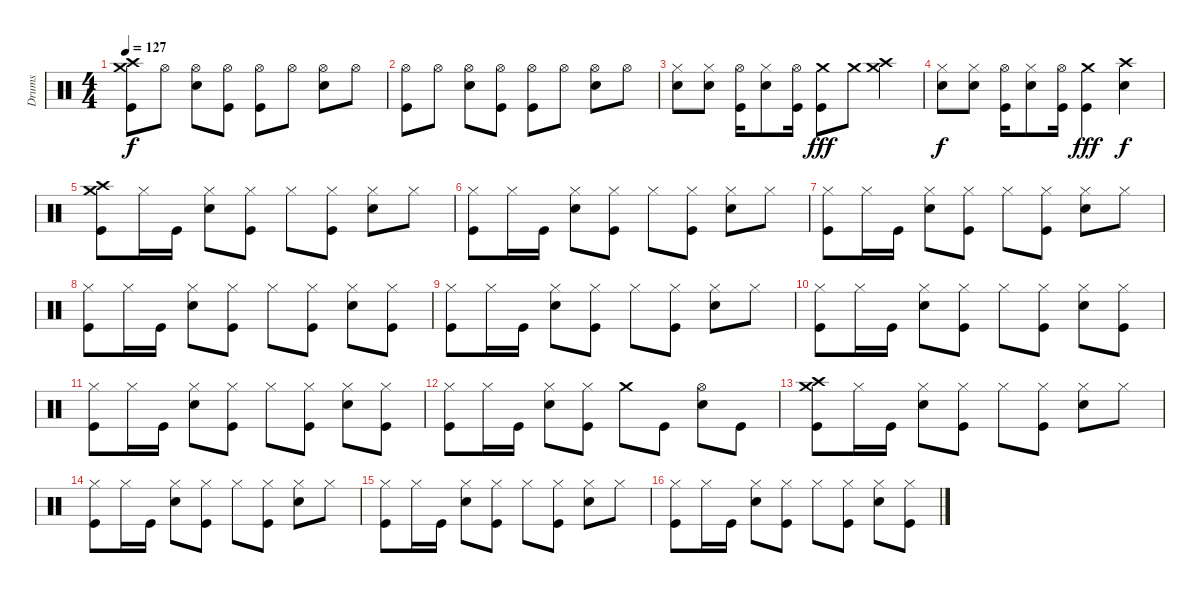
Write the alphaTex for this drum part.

\track ("Drums" "Drums") {instrument percussion}
\staff {score}
\articulation defaults
\ts (4 4)
\tempo 127
\clef neutral
\ks c
("Crash medium (hit)" "Crash high (hit)" "Kick (hit)").8{dy f} "Hi-Hat (open)".8 ("Electric Snare (hit)" "Hi-Hat (open)").8 ("Hi-Hat (open)" "Kick (hit)").8 ("Hi-Hat (open)" "Kick (hit)").8 "Hi-Hat (open)".8 ("Electric Snare (hit)" "Hi-Hat (open)").8 "Hi-Hat (open)".8 |
("Hi-Hat (open)" "Kick (hit)").8 "Hi-Hat (open)".8 ("Electric Snare (hit)" "Hi-Hat (open)").8 ("Hi-Hat (open)" "Kick (hit)").8 ("Hi-Hat (open)" "Kick (hit)").8 "Hi-Hat (open)".8 ("Electric Snare (hit)" "Hi-Hat (open)").8 "Hi-Hat (open)".8 |
("Electric Snare (hit)" "Hi-Hat (closed)").8 ("Electric Snare (hit)" "Hi-Hat (closed)").8 ("Hi-Hat (open)" "Kick (hit)").16 ("Electric Snare (hit)" "Hi-Hat (closed)").8 ("Hi-Hat (open)" "Kick (hit)").16 ("Crash medium (hit)" "Kick (hit)").8{dy fff} "Crash medium (hit)".8 ("Crash medium (hit)" "Crash high (hit)").4 |
("Electric Snare (hit)" "Hi-Hat (closed)").8{dy f} ("Electric Snare (hit)" "Hi-Hat (closed)").8 ("Hi-Hat (open)" "Kick (hit)").16 ("Electric Snare (hit)" "Hi-Hat (closed)").8 ("Hi-Hat (open)" "Kick (hit)").16 ("Crash medium (hit)" "Kick (hit)").4{dy fff} ("Electric Snare (hit)" "Crash high (hit)").4{dy f} |
("Crash medium (hit)" "Crash high (hit)" "Kick (hit)").8 "Hi-Hat (closed)".16 "Kick (hit)".16 ("Electric Snare (hit)" "Hi-Hat (closed)").8 ("Hi-Hat (closed)" "Kick (hit)").8 "Hi-Hat (closed)".8 ("Hi-Hat (closed)" "Kick (hit)").8 ("Electric Snare (hit)" "Hi-Hat (closed)").8 "Hi-Hat (closed)".8 |
("Hi-Hat (closed)" "Kick (hit)").8 "Hi-Hat (closed)".16 "Kick (hit)".16 ("Electric Snare (hit)" "Hi-Hat (closed)").8 ("Hi-Hat (closed)" "Kick (hit)").8 "Hi-Hat (closed)".8 ("Hi-Hat (closed)" "Kick (hit)").8 ("Electric Snare (hit)" "Hi-Hat (closed)").8 "Hi-Hat (closed)".8 |
("Hi-Hat (closed)" "Kick (hit)").8 "Hi-Hat (closed)".16 "Kick (hit)".16 ("Electric Snare (hit)" "Hi-Hat (closed)").8 ("Hi-Hat (closed)" "Kick (hit)").8 "Hi-Hat (closed)".8 ("Hi-Hat (closed)" "Kick (hit)").8 ("Electric Snare (hit)" "Hi-Hat (closed)").8 "Hi-Hat (closed)".8 |
("Hi-Hat (closed)" "Kick (hit)").8 "Hi-Hat (closed)".16 "Kick (hit)".16 ("Electric Snare (hit)" "Hi-Hat (closed)").8 ("Hi-Hat (closed)" "Kick (hit)").8 "Hi-Hat (closed)".8 ("Hi-Hat (closed)" "Kick (hit)").8 ("Electric Snare (hit)" "Hi-Hat (closed)").8 ("Hi-Hat (closed)" "Kick (hit)").8 |
("Hi-Hat (closed)" "Kick (hit)").8 "Hi-Hat (closed)".16 "Kick (hit)".16 ("Electric Snare (hit)" "Hi-Hat (closed)").8 ("Hi-Hat (closed)" "Kick (hit)").8 "Hi-Hat (closed)".8 ("Hi-Hat (closed)" "Kick (hit)").8 ("Electric Snare (hit)" "Hi-Hat (closed)").8 "Hi-Hat (closed)".8 |
("Hi-Hat (closed)" "Kick (hit)").8 "Hi-Hat (closed)".16 "Kick (hit)".16 ("Electric Snare (hit)" "Hi-Hat (closed)").8 ("Hi-Hat (closed)" "Kick (hit)").8 "Hi-Hat (closed)".8 ("Hi-Hat (closed)" "Kick (hit)").8 ("Electric Snare (hit)" "Hi-Hat (closed)").8 ("Hi-Hat (closed)" "Kick (hit)").8 |
("Hi-Hat (closed)" "Kick (hit)").8 "Hi-Hat (closed)".16 "Kick (hit)".16 ("Electric Snare (hit)" "Hi-Hat (closed)").8 ("Hi-Hat (closed)" "Kick (hit)").8 "Hi-Hat (closed)".8 ("Hi-Hat (closed)" "Kick (hit)").8 ("Electric Snare (hit)" "Hi-Hat (closed)").8 ("Hi-Hat (closed)" "Kick (hit)").8 |
("Hi-Hat (closed)" "Kick (hit)").8 "Hi-Hat (closed)".16 "Kick (hit)".16 ("Electric Snare (hit)" "Hi-Hat (closed)").8 ("Hi-Hat (closed)" "Kick (hit)").8 "Crash medium (hit)".8 "Kick (hit)".8 ("Electric Snare (hit)" "Hi-Hat (open)").8 "Kick (hit)".8 |
("Crash medium (hit)" "Crash high (hit)" "Kick (hit)").8 "Hi-Hat (closed)".16 "Kick (hit)".16 ("Electric Snare (hit)" "Hi-Hat (closed)").8 ("Hi-Hat (closed)" "Kick (hit)").8 "Hi-Hat (closed)".8 ("Hi-Hat (closed)" "Kick (hit)").8 ("Electric Snare (hit)" "Hi-Hat (closed)").8 "Hi-Hat (closed)".8 |
("Hi-Hat (closed)" "Kick (hit)").8 "Hi-Hat (closed)".16 "Kick (hit)".16 ("Electric Snare (hit)" "Hi-Hat (closed)").8 ("Hi-Hat (closed)" "Kick (hit)").8 "Hi-Hat (closed)".8 ("Hi-Hat (closed)" "Kick (hit)").8 ("Electric Snare (hit)" "Hi-Hat (closed)").8 "Hi-Hat (closed)".8 |
("Hi-Hat (closed)" "Kick (hit)").8 "Hi-Hat (closed)".16 "Kick (hit)".16 ("Electric Snare (hit)" "Hi-Hat (closed)").8 ("Hi-Hat (closed)" "Kick (hit)").8 "Hi-Hat (closed)".8 ("Hi-Hat (closed)" "Kick (hit)").8 ("Electric Snare (hit)" "Hi-Hat (closed)").8 "Hi-Hat (closed)".8 |
("Hi-Hat (closed)" "Kick (hit)").8 "Hi-Hat (closed)".16 "Kick (hit)".16 ("Electric Snare (hit)" "Hi-Hat (closed)").8 ("Hi-Hat (closed)" "Kick (hit)").8 "Hi-Hat (closed)".8 ("Hi-Hat (closed)" "Kick (hit)").8 ("Electric Snare (hit)" "Hi-Hat (closed)").8 ("Hi-Hat (closed)" "Kick (hit)").8
